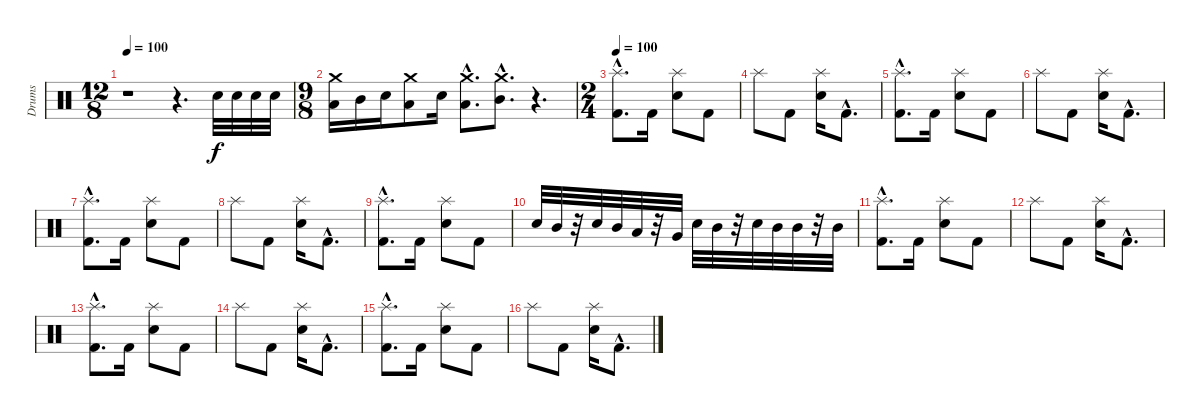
\track ("Drums" "Drums") {instrument percussion}
\staff {score}
\articulation defaults
\ts (12 8)
\tempo 100
\clef neutral
\ks c
r.1{dy f} r.4{d} "Electric Snare (hit)".32 "Electric Snare (hit)".32 "Electric Snare (hit)".32 "Electric Snare (hit)".32 |
\ts (9 8)
("Crash medium (hit)" "Low Tom (hit)").16 "Mid Tom (hit)".16 "Electric Snare (hit)".16 ("Crash medium (hit)" "Low Tom (hit)").8 "Electric Snare (hit)".16 ("Crash medium (hit)"{hac} "Low Tom (hit)"{hac}).8{d} ("Crash medium (hit)"{hac} "Mid Tom (hit)"{hac}).8{d} r.4{d} |
\ts (2 4)
\tempo 100
("Splash (hit)"{hac} "Kick (hit) 2"{hac}).8{d} "Kick (hit) 2".16 ("Electric Snare (hit)" "Splash (hit)").8 "Kick (hit) 2".8 |
"Splash (hit)".8 "Kick (hit) 2".8 ("Electric Snare (hit)" "Splash (hit)").16 "Kick (hit) 2"{hac}.8{d} |
("Splash (hit)"{hac} "Kick (hit) 2"{hac}).8{d} "Kick (hit) 2".16 ("Electric Snare (hit)" "Splash (hit)").8 "Kick (hit) 2".8 |
"Splash (hit)".8 "Kick (hit) 2".8 ("Electric Snare (hit)" "Splash (hit)").16 "Kick (hit) 2"{hac}.8{d} |
("Splash (hit)"{hac} "Kick (hit) 2"{hac}).8{d} "Kick (hit) 2".16 ("Electric Snare (hit)" "Splash (hit)").8 "Kick (hit) 2".8 |
"Splash (hit)".8 "Kick (hit) 2".8 ("Electric Snare (hit)" "Splash (hit)").16 "Kick (hit) 2"{hac}.8{d} |
("Splash (hit)"{hac} "Kick (hit) 2"{hac}).8{d} "Kick (hit) 2".16 ("Electric Snare (hit)" "Splash (hit)").8 "Kick (hit) 2".8 |
"Electric Snare (hit)".32 "Mid Tom (hit)".32 r.32 "Electric Snare (hit)".32 "Mid Tom (hit)".32 "Low Tom (hit)".32 r.32 "Very Low Tom (hit)".32 "Electric Snare (hit)".32 "Mid Tom (hit)".32 r.32 "Electric Snare (hit)".32 "Mid Tom (hit)".32 "Mid Tom (hit)".32 r.32 "Mid Tom (hit)".32 |
("Splash (hit)"{hac} "Kick (hit) 2"{hac}).8{d} "Kick (hit) 2".16 ("Electric Snare (hit)" "Splash (hit)").8 "Kick (hit) 2".8 |
"Splash (hit)".8 "Kick (hit) 2".8 ("Electric Snare (hit)" "Splash (hit)").16 "Kick (hit) 2"{hac}.8{d} |
("Splash (hit)"{hac} "Kick (hit) 2"{hac}).8{d} "Kick (hit) 2".16 ("Electric Snare (hit)" "Splash (hit)").8 "Kick (hit) 2".8 |
"Splash (hit)".8 "Kick (hit) 2".8 ("Electric Snare (hit)" "Splash (hit)").16 "Kick (hit) 2"{hac}.8{d} |
("Splash (hit)"{hac} "Kick (hit) 2"{hac}).8{d} "Kick (hit) 2".16 ("Electric Snare (hit)" "Splash (hit)").8 "Kick (hit) 2".8 |
"Splash (hit)".8 "Kick (hit) 2".8 ("Electric Snare (hit)" "Splash (hit)").16 "Kick (hit) 2"{hac}.8{d}
